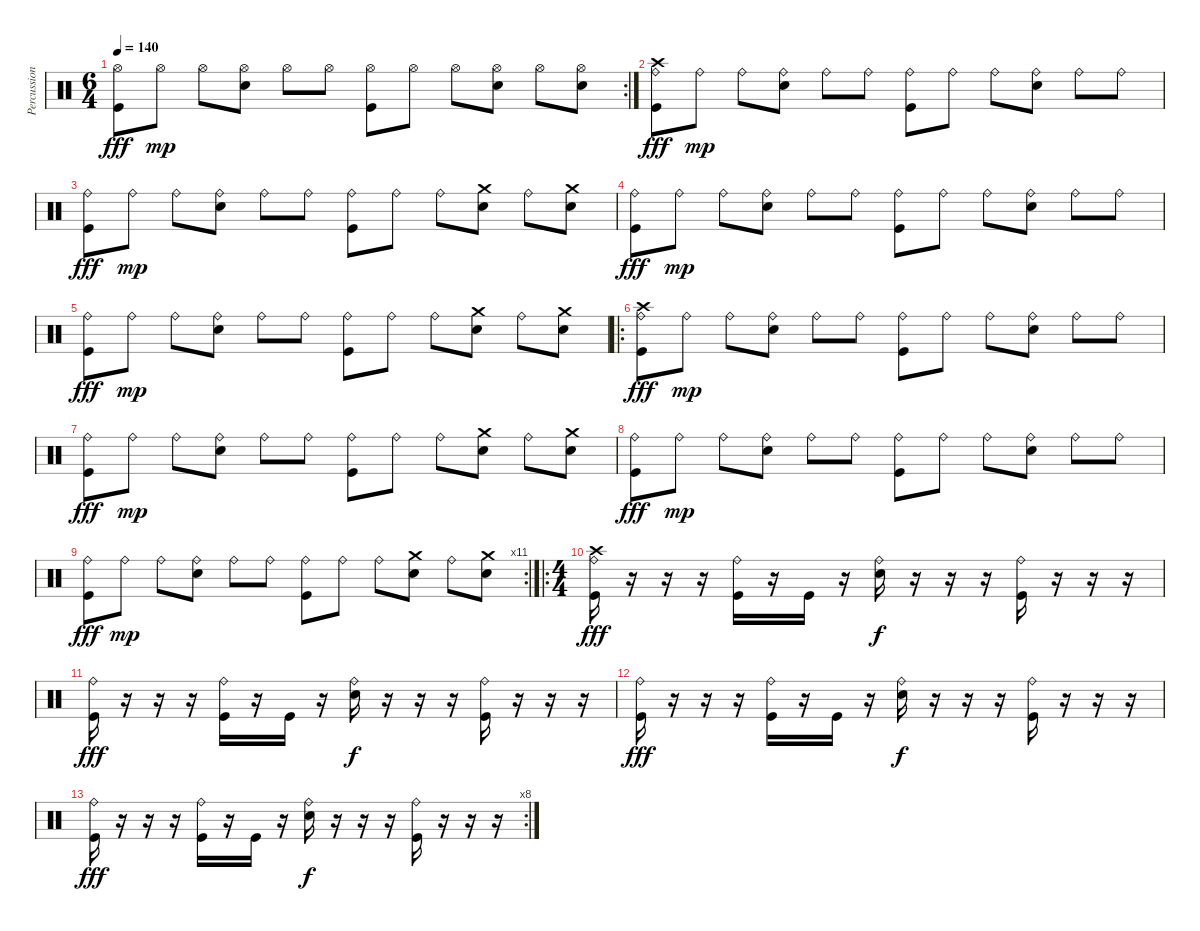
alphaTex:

\track ("Percussion" "Percussion") {instrument percussion}
\staff {score}
\articulation defaults
\rc 2
\ts (6 4)
\tempo 140
\clef neutral
\ks c
("Hi-Hat (open)" "Kick (hit)").8{dy fff} "Hi-Hat (open)".8{dy mp} "Hi-Hat (open)".8 ("Hi-Hat (open)" "Snare (hit) 2").8 "Hi-Hat (open)".8 "Hi-Hat (open)".8 ("Hi-Hat (open)" "Kick (hit)").8 "Hi-Hat (open)".8 "Hi-Hat (open)".8 ("Hi-Hat (open)" "Snare (hit) 2").8 "Hi-Hat (open)".8 ("Hi-Hat (open)" "Snare (hit) 2").8 |
("Crash high (hit)" "Ride (bell)" "Kick (hit)").8{dy fff} "Ride (bell)".8{dy mp} "Ride (bell)".8 ("Ride (bell)" "Snare (hit) 2").8 "Ride (bell)".8 "Ride (bell)".8 ("Ride (bell)" "Kick (hit)").8 "Ride (bell)".8 "Ride (bell)".8 ("Ride (bell)" "Snare (hit) 2").8 "Ride (bell)".8 "Ride (bell)".8 |
("Ride (bell)" "Kick (hit)").8{dy fff} "Ride (bell)".8{dy mp} "Ride (bell)".8 ("Ride (bell)" "Snare (hit) 2").8 "Ride (bell)".8 "Ride (bell)".8 ("Ride (bell)" "Kick (hit)").8 "Ride (bell)".8 "Ride (bell)".8 ("Crash medium (hit)" "Snare (hit) 2").8 "Ride (bell)".8 ("Crash medium (hit)" "Snare (hit) 2").8 |
("Ride (bell)" "Kick (hit)").8{dy fff} "Ride (bell)".8{dy mp} "Ride (bell)".8 ("Ride (bell)" "Snare (hit) 2").8 "Ride (bell)".8 "Ride (bell)".8 ("Ride (bell)" "Kick (hit)").8 "Ride (bell)".8 "Ride (bell)".8 ("Ride (bell)" "Snare (hit) 2").8 "Ride (bell)".8 "Ride (bell)".8 |
("Ride (bell)" "Kick (hit)").8{dy fff} "Ride (bell)".8{dy mp} "Ride (bell)".8 ("Ride (bell)" "Snare (hit) 2").8 "Ride (bell)".8 "Ride (bell)".8 ("Ride (bell)" "Kick (hit)").8 "Ride (bell)".8 "Ride (bell)".8 ("Crash medium (hit)" "Snare (hit) 2").8 "Ride (bell)".8 ("Crash medium (hit)" "Snare (hit) 2").8 |
\ro
("Crash high (hit)" "Ride (bell)" "Kick (hit)").8{dy fff} "Ride (bell)".8{dy mp} "Ride (bell)".8 ("Ride (bell)" "Snare (hit) 2").8 "Ride (bell)".8 "Ride (bell)".8 ("Ride (bell)" "Kick (hit)").8 "Ride (bell)".8 "Ride (bell)".8 ("Ride (bell)" "Snare (hit) 2").8 "Ride (bell)".8 "Ride (bell)".8 |
("Ride (bell)" "Kick (hit)").8{dy fff} "Ride (bell)".8{dy mp} "Ride (bell)".8 ("Ride (bell)" "Snare (hit) 2").8 "Ride (bell)".8 "Ride (bell)".8 ("Ride (bell)" "Kick (hit)").8 "Ride (bell)".8 "Ride (bell)".8 ("Crash medium (hit)" "Snare (hit) 2").8 "Ride (bell)".8 ("Crash medium (hit)" "Snare (hit) 2").8 |
("Ride (bell)" "Kick (hit)").8{dy fff} "Ride (bell)".8{dy mp} "Ride (bell)".8 ("Ride (bell)" "Snare (hit) 2").8 "Ride (bell)".8 "Ride (bell)".8 ("Ride (bell)" "Kick (hit)").8 "Ride (bell)".8 "Ride (bell)".8 ("Ride (bell)" "Snare (hit) 2").8 "Ride (bell)".8 "Ride (bell)".8 |
\rc 11
("Ride (bell)" "Kick (hit)").8{dy fff} "Ride (bell)".8{dy mp} "Ride (bell)".8 ("Ride (bell)" "Snare (hit) 2").8 "Ride (bell)".8 "Ride (bell)".8 ("Ride (bell)" "Kick (hit)").8 "Ride (bell)".8 "Ride (bell)".8 ("Crash medium (hit)" "Snare (hit) 2").8 "Ride (bell)".8 ("Crash medium (hit)" "Snare (hit) 2").8 |
\ro
\ts (4 4)
("Crash high (hit)" "Ride (bell)" "Kick (hit)").16{dy fff} r.16 r.16 r.16 ("Ride (bell)" "Kick (hit)").16 r.16 "Kick (hit)".16 r.16 ("Ride (bell)" "Snare (hit) 2").16{dy f} r.16 r.16 r.16 ("Ride (bell)" "Kick (hit)").16 r.16 r.16 r.16 |
("Ride (bell)" "Kick (hit)").16{dy fff} r.16 r.16 r.16 ("Ride (bell)" "Kick (hit)").16 r.16 "Kick (hit)".16 r.16 ("Ride (bell)" "Snare (hit) 2").16{dy f} r.16 r.16 r.16 ("Ride (bell)" "Kick (hit)").16 r.16 r.16 r.16 |
("Ride (bell)" "Kick (hit)").16{dy fff} r.16 r.16 r.16 ("Ride (bell)" "Kick (hit)").16 r.16 "Kick (hit)".16 r.16 ("Ride (bell)" "Snare (hit) 2").16{dy f} r.16 r.16 r.16 ("Ride (bell)" "Kick (hit)").16 r.16 r.16 r.16 |
\rc 8
("Ride (bell)" "Kick (hit)").16{dy fff} r.16 r.16 r.16 ("Ride (bell)" "Kick (hit)").16 r.16 "Kick (hit)".16 r.16 ("Ride (bell)" "Snare (hit) 2").16{dy f} r.16 r.16 r.16 ("Ride (bell)" "Kick (hit)").16 r.16 r.16 r.16
